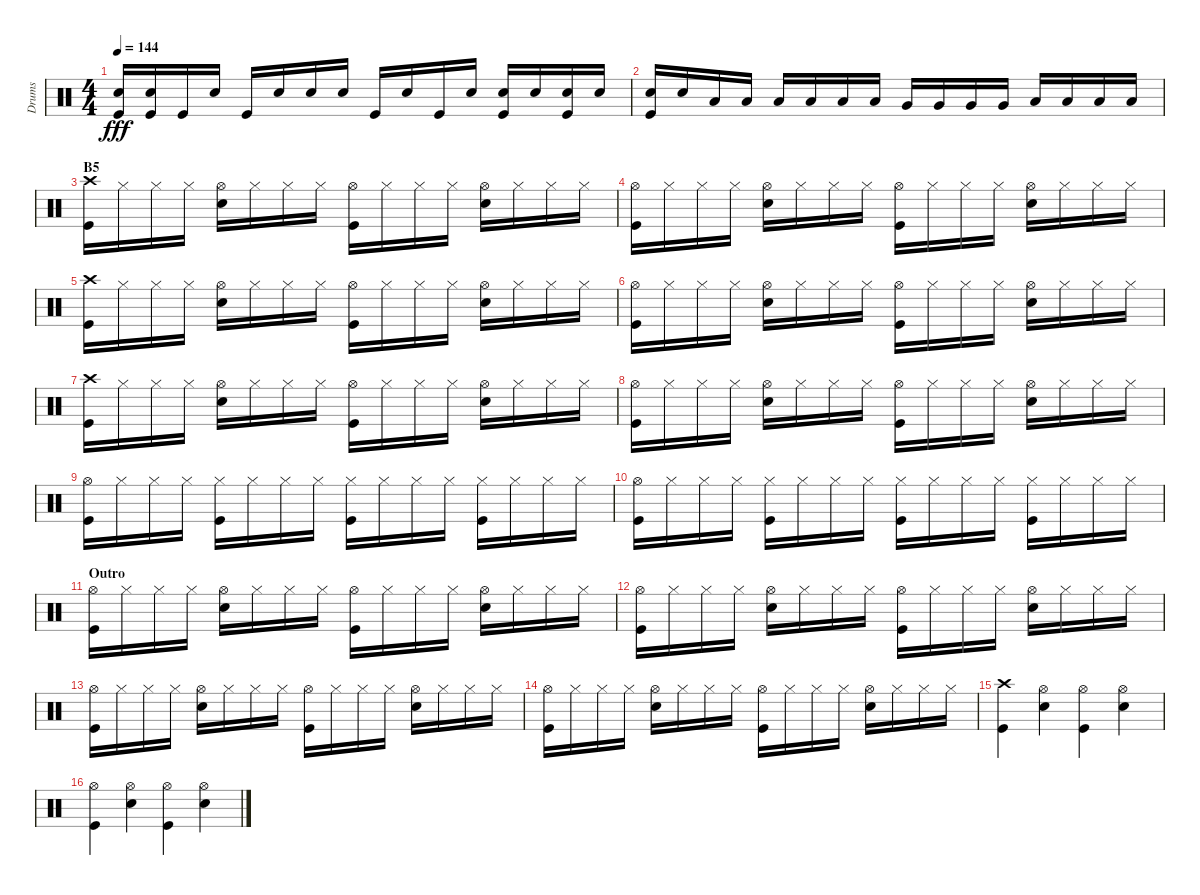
\track ("Drums" "Drums") {instrument percussion}
\staff {score}
\articulation defaults
\ts (4 4)
\tempo 144
\clef neutral
\ks c
("Snare (hit) 2" "Kick (hit)").16{dy fff} ("Snare (hit) 2" "Kick (hit)").16 "Kick (hit)".16 "Snare (hit) 2".16 "Kick (hit)".16 "Snare (hit) 2".16 "Snare (hit) 2".16 "Snare (hit) 2".16 "Kick (hit)".16 "Snare (hit) 2".16 "Kick (hit)".16 "Snare (hit) 2".16 ("Snare (hit) 2" "Kick (hit)").16 "Snare (hit) 2".16 ("Snare (hit) 2" "Kick (hit)").16 "Snare (hit) 2".16 |
("Snare (hit) 2" "Kick (hit)").16 "Snare (hit) 2".16 "Low Tom (hit)".16 "Low Tom (hit)".16 "Low Tom (hit)".16 "Low Tom (hit)".16 "Low Tom (hit)".16 "Low Tom (hit)".16 "Very Low Tom (hit)".16 "Very Low Tom (hit)".16 "Very Low Tom (hit)".16 "Very Low Tom (hit)".16 "Low Floor Tom (hit)".16 "Low Floor Tom (hit)".16 "Low Floor Tom (hit)".16 "Low Floor Tom (hit)".16 |
\section ("" "B5")
("Crash high (hit)" "Kick (hit)").16 "Hi-Hat (closed)".16 "Hi-Hat (closed)".16 "Hi-Hat (closed)".16 ("Hi-Hat (open)" "Snare (hit) 2").16 "Hi-Hat (closed)".16 "Hi-Hat (closed)".16 "Hi-Hat (closed)".16 ("Hi-Hat (open)" "Kick (hit)").16 "Hi-Hat (closed)".16 "Hi-Hat (closed)".16 "Hi-Hat (closed)".16 ("Hi-Hat (open)" "Snare (hit) 2").16 "Hi-Hat (closed)".16 "Hi-Hat (closed)".16 "Hi-Hat (closed)".16 |
("Hi-Hat (open)" "Kick (hit)").16 "Hi-Hat (closed)".16 "Hi-Hat (closed)".16 "Hi-Hat (closed)".16 ("Hi-Hat (open)" "Snare (hit) 2").16 "Hi-Hat (closed)".16 "Hi-Hat (closed)".16 "Hi-Hat (closed)".16 ("Hi-Hat (open)" "Kick (hit)").16 "Hi-Hat (closed)".16 "Hi-Hat (closed)".16 "Hi-Hat (closed)".16 ("Hi-Hat (open)" "Snare (hit) 2").16 "Hi-Hat (closed)".16 "Hi-Hat (closed)".16 "Hi-Hat (closed)".16 |
("Crash high (hit)" "Kick (hit)").16 "Hi-Hat (closed)".16 "Hi-Hat (closed)".16 "Hi-Hat (closed)".16 ("Hi-Hat (open)" "Snare (hit) 2").16 "Hi-Hat (closed)".16 "Hi-Hat (closed)".16 "Hi-Hat (closed)".16 ("Hi-Hat (open)" "Kick (hit)").16 "Hi-Hat (closed)".16 "Hi-Hat (closed)".16 "Hi-Hat (closed)".16 ("Hi-Hat (open)" "Snare (hit) 2").16 "Hi-Hat (closed)".16 "Hi-Hat (closed)".16 "Hi-Hat (closed)".16 |
("Hi-Hat (open)" "Kick (hit)").16 "Hi-Hat (closed)".16 "Hi-Hat (closed)".16 "Hi-Hat (closed)".16 ("Hi-Hat (open)" "Snare (hit) 2").16 "Hi-Hat (closed)".16 "Hi-Hat (closed)".16 "Hi-Hat (closed)".16 ("Hi-Hat (open)" "Kick (hit)").16 "Hi-Hat (closed)".16 "Hi-Hat (closed)".16 "Hi-Hat (closed)".16 ("Hi-Hat (open)" "Snare (hit) 2").16 "Hi-Hat (closed)".16 "Hi-Hat (closed)".16 "Hi-Hat (closed)".16 |
("Crash high (hit)" "Kick (hit)").16 "Hi-Hat (closed)".16 "Hi-Hat (closed)".16 "Hi-Hat (closed)".16 ("Hi-Hat (open)" "Snare (hit) 2").16 "Hi-Hat (closed)".16 "Hi-Hat (closed)".16 "Hi-Hat (closed)".16 ("Hi-Hat (open)" "Kick (hit)").16 "Hi-Hat (closed)".16 "Hi-Hat (closed)".16 "Hi-Hat (closed)".16 ("Hi-Hat (open)" "Snare (hit) 2").16 "Hi-Hat (closed)".16 "Hi-Hat (closed)".16 "Hi-Hat (closed)".16 |
("Hi-Hat (open)" "Kick (hit)").16 "Hi-Hat (closed)".16 "Hi-Hat (closed)".16 "Hi-Hat (closed)".16 ("Hi-Hat (open)" "Snare (hit) 2").16 "Hi-Hat (closed)".16 "Hi-Hat (closed)".16 "Hi-Hat (closed)".16 ("Hi-Hat (open)" "Kick (hit)").16 "Hi-Hat (closed)".16 "Hi-Hat (closed)".16 "Hi-Hat (closed)".16 ("Hi-Hat (open)" "Snare (hit) 2").16 "Hi-Hat (closed)".16 "Hi-Hat (closed)".16 "Hi-Hat (closed)".16 |
("Hi-Hat (open)" "Kick (hit)").16 "Hi-Hat (closed)".16 "Hi-Hat (closed)".16 "Hi-Hat (closed)".16 ("Hi-Hat (closed)" "Kick (hit)").16 "Hi-Hat (closed)".16 "Hi-Hat (closed)".16 "Hi-Hat (closed)".16 ("Hi-Hat (closed)" "Kick (hit)").16 "Hi-Hat (closed)".16 "Hi-Hat (closed)".16 "Hi-Hat (closed)".16 ("Hi-Hat (closed)" "Kick (hit)").16 "Hi-Hat (closed)".16 "Hi-Hat (closed)".16 "Hi-Hat (closed)".16 |
("Hi-Hat (open)" "Kick (hit)").16 "Hi-Hat (closed)".16 "Hi-Hat (closed)".16 "Hi-Hat (closed)".16 ("Hi-Hat (closed)" "Kick (hit)").16 "Hi-Hat (closed)".16 "Hi-Hat (closed)".16 "Hi-Hat (closed)".16 ("Hi-Hat (closed)" "Kick (hit)").16 "Hi-Hat (closed)".16 "Hi-Hat (closed)".16 "Hi-Hat (closed)".16 ("Hi-Hat (closed)" "Kick (hit)").16 "Hi-Hat (closed)".16 "Hi-Hat (closed)".16 "Hi-Hat (closed)".16 |
\section ("" "Outro")
("Hi-Hat (open)" "Kick (hit)").16 "Hi-Hat (closed)".16 "Hi-Hat (closed)".16 "Hi-Hat (closed)".16 ("Hi-Hat (open)" "Snare (hit) 2").16 "Hi-Hat (closed)".16 "Hi-Hat (closed)".16 "Hi-Hat (closed)".16 ("Hi-Hat (open)" "Kick (hit)").16 "Hi-Hat (closed)".16 "Hi-Hat (closed)".16 "Hi-Hat (closed)".16 ("Hi-Hat (open)" "Snare (hit) 2").16 "Hi-Hat (closed)".16 "Hi-Hat (closed)".16 "Hi-Hat (closed)".16 |
("Hi-Hat (open)" "Kick (hit)").16 "Hi-Hat (closed)".16 "Hi-Hat (closed)".16 "Hi-Hat (closed)".16 ("Hi-Hat (open)" "Snare (hit) 2").16 "Hi-Hat (closed)".16 "Hi-Hat (closed)".16 "Hi-Hat (closed)".16 ("Hi-Hat (open)" "Kick (hit)").16 "Hi-Hat (closed)".16 "Hi-Hat (closed)".16 "Hi-Hat (closed)".16 ("Hi-Hat (open)" "Snare (hit) 2").16 "Hi-Hat (closed)".16 "Hi-Hat (closed)".16 "Hi-Hat (closed)".16 |
("Hi-Hat (open)" "Kick (hit)").16 "Hi-Hat (closed)".16 "Hi-Hat (closed)".16 "Hi-Hat (closed)".16 ("Hi-Hat (open)" "Snare (hit) 2").16 "Hi-Hat (closed)".16 "Hi-Hat (closed)".16 "Hi-Hat (closed)".16 ("Hi-Hat (open)" "Kick (hit)").16 "Hi-Hat (closed)".16 "Hi-Hat (closed)".16 "Hi-Hat (closed)".16 ("Hi-Hat (open)" "Snare (hit) 2").16 "Hi-Hat (closed)".16 "Hi-Hat (closed)".16 "Hi-Hat (closed)".16 |
("Hi-Hat (open)" "Kick (hit)").16 "Hi-Hat (closed)".16 "Hi-Hat (closed)".16 "Hi-Hat (closed)".16 ("Hi-Hat (open)" "Snare (hit) 2").16 "Hi-Hat (closed)".16 "Hi-Hat (closed)".16 "Hi-Hat (closed)".16 ("Hi-Hat (open)" "Kick (hit)").16 "Hi-Hat (closed)".16 "Hi-Hat (closed)".16 "Hi-Hat (closed)".16 ("Hi-Hat (open)" "Snare (hit) 2").16 "Hi-Hat (closed)".16 "Hi-Hat (closed)".16 "Hi-Hat (closed)".16 |
("Crash high (hit)" "Kick (hit)").4 ("Hi-Hat (open)" "Snare (hit) 2").4 ("Hi-Hat (open)" "Kick (hit)").4 ("Hi-Hat (open)" "Snare (hit) 2").4 |
("Hi-Hat (open)" "Kick (hit)").4 ("Hi-Hat (open)" "Snare (hit) 2").4 ("Hi-Hat (open)" "Kick (hit)").4 ("Hi-Hat (open)" "Snare (hit) 2").4
